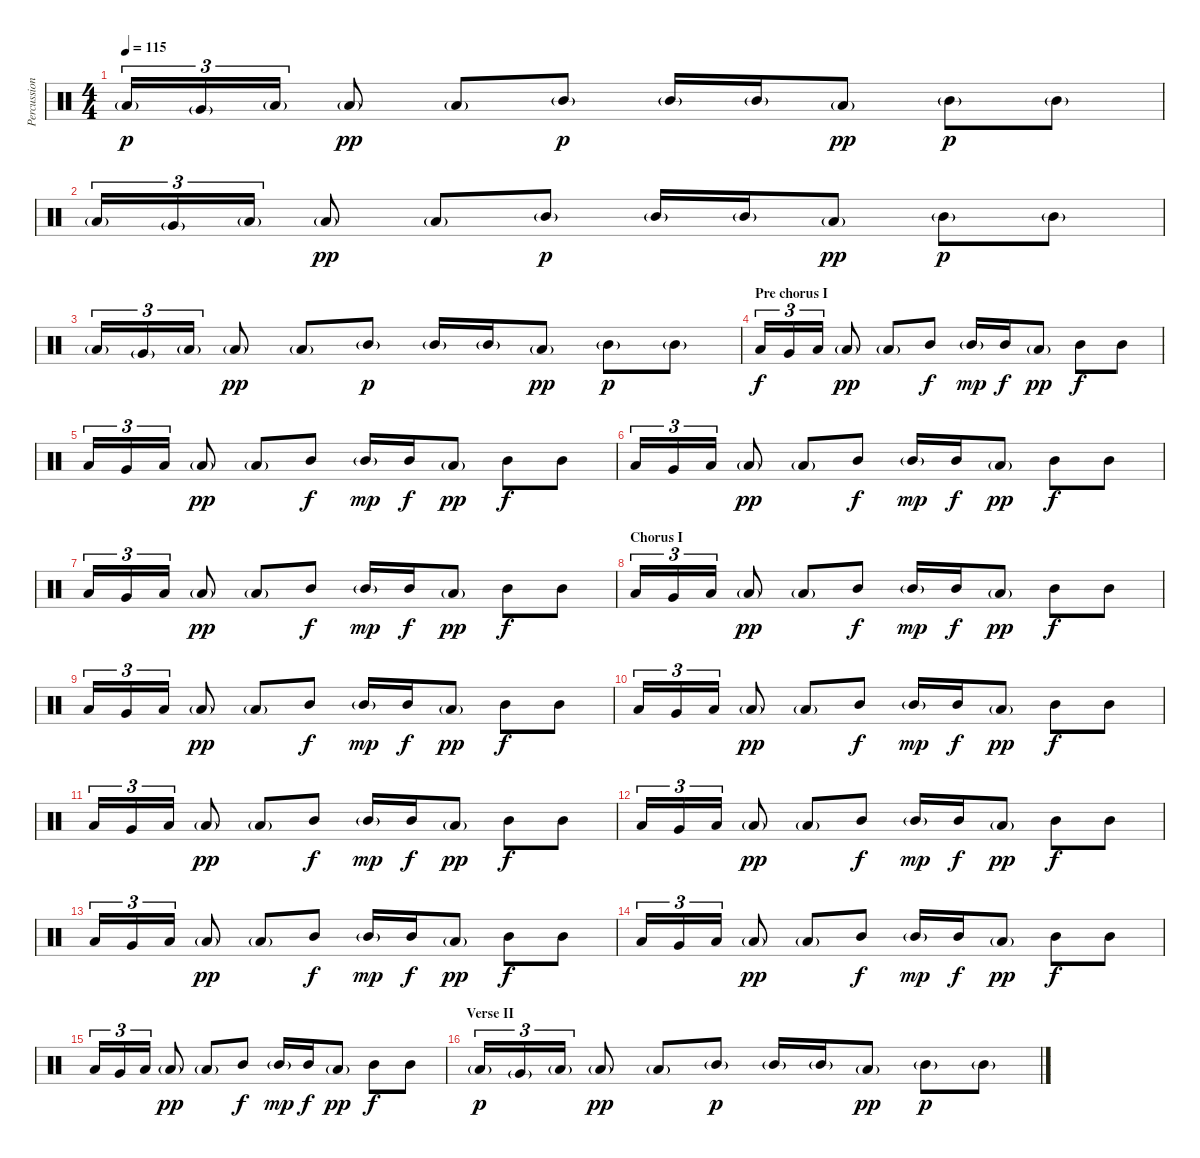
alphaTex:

\track ("Percussion - High Tom" "Percussion") {instrument percussion}
\staff {score}
\articulation defaults
\ts (4 4)
\tempo 115
\clef neutral
\ks c "Low Floor Tom (hit)"{g}.16{tu (3 2) dy p} "Very Low Tom (hit)"{g}.16{tu (3 2)} "Low Floor Tom (hit)"{g}.16{tu (3 2)} "Low Tom (hit)"{g}.8{dy pp} "Low Tom (hit)"{g}.8 "Mid Tom (hit)"{g}.8{dy p} "Mid Tom (hit)"{g}.16 "Mid Tom (hit)"{g}.16 "Low Tom (hit)"{g}.8{dy pp} "Mid Tom (hit)"{g}.8{dy p} "Mid Tom (hit)"{g}.8
|
"Low Floor Tom (hit)"{g}.16{tu (3 2)} "Very Low Tom (hit)"{g}.16{tu (3 2)} "Low Floor Tom (hit)"{g}.16{tu (3 2)} "Low Tom (hit)"{g}.8{dy pp} "Low Tom (hit)"{g}.8 "Mid Tom (hit)"{g}.8{dy p} "Mid Tom (hit)"{g}.16 "Mid Tom (hit)"{g}.16 "Low Tom (hit)"{g}.8{dy pp} "Mid Tom (hit)"{g}.8{dy p} "Mid Tom (hit)"{g}.8 |
"Low Floor Tom (hit)"{g}.16{tu (3 2)} "Very Low Tom (hit)"{g}.16{tu (3 2)} "Low Floor Tom (hit)"{g}.16{tu (3 2)} "Low Tom (hit)"{g}.8{dy pp} "Low Tom (hit)"{g}.8 "Mid Tom (hit)"{g}.8{dy p} "Mid Tom (hit)"{g}.16 "Mid Tom (hit)"{g}.16 "Low Tom (hit)"{g}.8{dy pp} "Mid Tom (hit)"{g}.8{dy p} "Mid Tom (hit)"{g}.8 |
\section ("" "Pre chorus I")
"Low Floor Tom (hit)".16{tu (3 2) dy f} "Very Low Tom (hit)".16{tu (3 2)} "Low Floor Tom (hit)".16{tu (3 2)} "Low Tom (hit)"{g}.8{dy pp} "Low Tom (hit)"{g}.8 "Mid Tom (hit)".8{dy f} "Mid Tom (hit)"{g}.16{dy mp} "Mid Tom (hit)".16{dy f} "Low Tom (hit)"{g}.8{dy pp} "Mid Tom (hit)".8{dy f} "Mid Tom (hit)".8 |
"Low Floor Tom (hit)".16{tu (3 2)} "Very Low Tom (hit)".16{tu (3 2)} "Low Floor Tom (hit)".16{tu (3 2)} "Low Tom (hit)"{g}.8{dy pp} "Low Tom (hit)"{g}.8 "Mid Tom (hit)".8{dy f} "Mid Tom (hit)"{g}.16{dy mp} "Mid Tom (hit)".16{dy f} "Low Tom (hit)"{g}.8{dy pp} "Mid Tom (hit)".8{dy f} "Mid Tom (hit)".8 |
"Low Floor Tom (hit)".16{tu (3 2)} "Very Low Tom (hit)".16{tu (3 2)} "Low Floor Tom (hit)".16{tu (3 2)} "Low Tom (hit)"{g}.8{dy pp} "Low Tom (hit)"{g}.8 "Mid Tom (hit)".8{dy f} "Mid Tom (hit)"{g}.16{dy mp} "Mid Tom (hit)".16{dy f} "Low Tom (hit)"{g}.8{dy pp} "Mid Tom (hit)".8{dy f} "Mid Tom (hit)".8 |
"Low Floor Tom (hit)".16{tu (3 2)} "Very Low Tom (hit)".16{tu (3 2)} "Low Floor Tom (hit)".16{tu (3 2)} "Low Tom (hit)"{g}.8{dy pp} "Low Tom (hit)"{g}.8 "Mid Tom (hit)".8{dy f} "Mid Tom (hit)"{g}.16{dy mp} "Mid Tom (hit)".16{dy f} "Low Tom (hit)"{g}.8{dy pp} "Mid Tom (hit)".8{dy f} "Mid Tom (hit)".8 |
\section ("" "Chorus I")
"Low Floor Tom (hit)".16{tu (3 2)} "Very Low Tom (hit)".16{tu (3 2)} "Low Floor Tom (hit)".16{tu (3 2)} "Low Tom (hit)"{g}.8{dy pp} "Low Tom (hit)"{g}.8 "Mid Tom (hit)".8{dy f} "Mid Tom (hit)"{g}.16{dy mp} "Mid Tom (hit)".16{dy f} "Low Tom (hit)"{g}.8{dy pp} "Mid Tom (hit)".8{dy f} "Mid Tom (hit)".8 |
"Low Floor Tom (hit)".16{tu (3 2)} "Very Low Tom (hit)".16{tu (3 2)} "Low Floor Tom (hit)".16{tu (3 2)} "Low Tom (hit)"{g}.8{dy pp} "Low Tom (hit)"{g}.8 "Mid Tom (hit)".8{dy f} "Mid Tom (hit)"{g}.16{dy mp} "Mid Tom (hit)".16{dy f} "Low Tom (hit)"{g}.8{dy pp} "Mid Tom (hit)".8{dy f} "Mid Tom (hit)".8 |
"Low Floor Tom (hit)".16{tu (3 2)} "Very Low Tom (hit)".16{tu (3 2)} "Low Floor Tom (hit)".16{tu (3 2)} "Low Tom (hit)"{g}.8{dy pp} "Low Tom (hit)"{g}.8 "Mid Tom (hit)".8{dy f} "Mid Tom (hit)"{g}.16{dy mp} "Mid Tom (hit)".16{dy f} "Low Tom (hit)"{g}.8{dy pp} "Mid Tom (hit)".8{dy f} "Mid Tom (hit)".8 |
"Low Floor Tom (hit)".16{tu (3 2)} "Very Low Tom (hit)".16{tu (3 2)} "Low Floor Tom (hit)".16{tu (3 2)} "Low Tom (hit)"{g}.8{dy pp} "Low Tom (hit)"{g}.8 "Mid Tom (hit)".8{dy f} "Mid Tom (hit)"{g}.16{dy mp} "Mid Tom (hit)".16{dy f} "Low Tom (hit)"{g}.8{dy pp} "Mid Tom (hit)".8{dy f} "Mid Tom (hit)".8 |
"Low Floor Tom (hit)".16{tu (3 2)} "Very Low Tom (hit)".16{tu (3 2)} "Low Floor Tom (hit)".16{tu (3 2)} "Low Tom (hit)"{g}.8{dy pp} "Low Tom (hit)"{g}.8 "Mid Tom (hit)".8{dy f} "Mid Tom (hit)"{g}.16{dy mp} "Mid Tom (hit)".16{dy f} "Low Tom (hit)"{g}.8{dy pp} "Mid Tom (hit)".8{dy f} "Mid Tom (hit)".8 |
"Low Floor Tom (hit)".16{tu (3 2)} "Very Low Tom (hit)".16{tu (3 2)} "Low Floor Tom (hit)".16{tu (3 2)} "Low Tom (hit)"{g}.8{dy pp} "Low Tom (hit)"{g}.8 "Mid Tom (hit)".8{dy f} "Mid Tom (hit)"{g}.16{dy mp} "Mid Tom (hit)".16{dy f} "Low Tom (hit)"{g}.8{dy pp} "Mid Tom (hit)".8{dy f} "Mid Tom (hit)".8 |
"Low Floor Tom (hit)".16{tu (3 2)} "Very Low Tom (hit)".16{tu (3 2)} "Low Floor Tom (hit)".16{tu (3 2)} "Low Tom (hit)"{g}.8{dy pp} "Low Tom (hit)"{g}.8 "Mid Tom (hit)".8{dy f} "Mid Tom (hit)"{g}.16{dy mp} "Mid Tom (hit)".16{dy f} "Low Tom (hit)"{g}.8{dy pp} "Mid Tom (hit)".8{dy f} "Mid Tom (hit)".8 |
"Low Floor Tom (hit)".16{tu (3 2)} "Very Low Tom (hit)".16{tu (3 2)} "Low Floor Tom (hit)".16{tu (3 2)} "Low Tom (hit)"{g}.8{dy pp} "Low Tom (hit)"{g}.8 "Mid Tom (hit)".8{dy f} "Mid Tom (hit)"{g}.16{dy mp} "Mid Tom (hit)".16{dy f} "Low Tom (hit)"{g}.8{dy pp} "Mid Tom (hit)".8{dy f} "Mid Tom (hit)".8 |
\section ("" "Verse II")
"Low Floor Tom (hit)"{g}.16{tu (3 2) dy p} "Very Low Tom (hit)"{g}.16{tu (3 2)} "Low Floor Tom (hit)"{g}.16{tu (3 2)} "Low Tom (hit)"{g}.8{dy pp} "Low Tom (hit)"{g}.8 "Mid Tom (hit)"{g}.8{dy p} "Mid Tom (hit)"{g}.16 "Mid Tom (hit)"{g}.16 "Low Tom (hit)"{g}.8{dy pp} "Mid Tom (hit)"{g}.8{dy p} "Mid Tom (hit)"{g}.8
